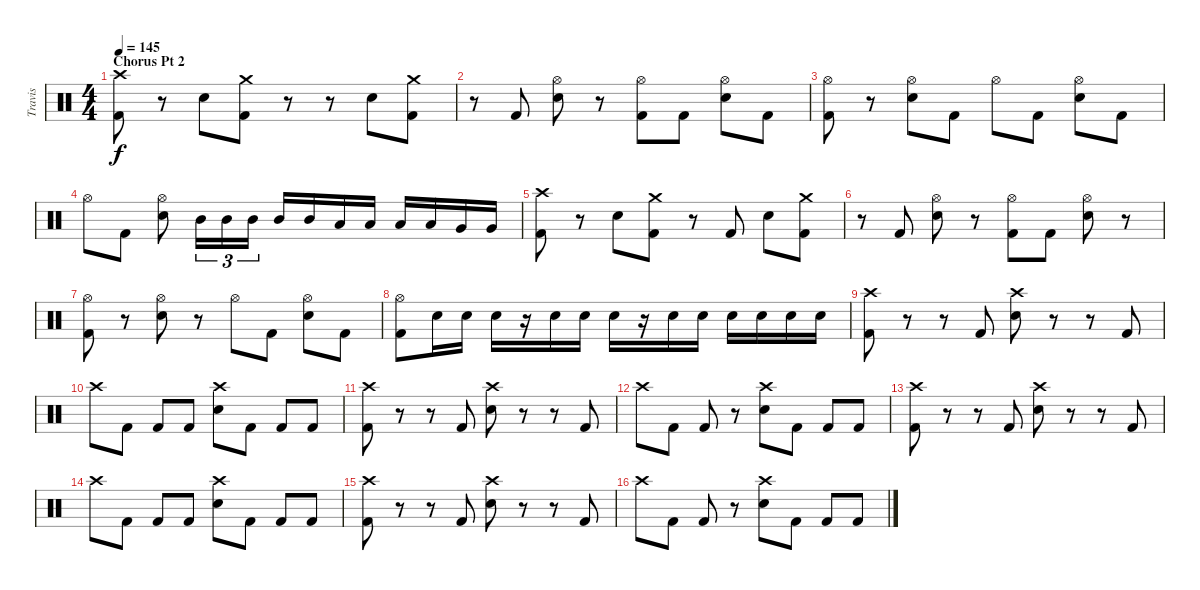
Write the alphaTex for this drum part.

\track ("Travis" "Travis") {instrument percussion}
\staff {score}
\articulation defaults
\ts (4 4)
\section ("" "Chorus Pt 2")
\tempo 145
\clef neutral
\ks c
("Crash high (hit)" "Kick (hit) 2").8{dy f} r.8 "Electric Snare (hit)".8 ("Crash medium (hit)" "Kick (hit) 2").8 r.8 r.8 "Electric Snare (hit)".8 ("Crash medium (hit)" "Kick (hit) 2").8 |
r.8 "Kick (hit) 2".8 ("Hi-Hat (open)" "Electric Snare (hit)").8 r.8 ("Hi-Hat (open)" "Kick (hit) 2").8 "Kick (hit) 2".8 ("Hi-Hat (open)" "Electric Snare (hit)").8 "Kick (hit) 2".8 |
("Hi-Hat (open)" "Kick (hit) 2").8 r.8 ("Hi-Hat (open)" "Electric Snare (hit)").8 "Kick (hit) 2".8 "Hi-Hat (open)".8 "Kick (hit) 2".8 ("Hi-Hat (open)" "Electric Snare (hit)").8 "Kick (hit) 2".8 |
"Hi-Hat (open)".8 "Kick (hit) 2".8 ("Hi-Hat (open)" "Electric Snare (hit)").8 "Mid Tom (hit)".16{tu (3 2)} "Mid Tom (hit)".16{tu (3 2)} "Mid Tom (hit)".16{tu (3 2)} "Mid Tom (hit)".16 "Mid Tom (hit)".16 "Low Tom (hit)".16 "Low Tom (hit)".16 "Low Tom (hit)".16 "Low Tom (hit)".16 "Very Low Tom (hit)".16 "Very Low Tom (hit)".16 |
("Crash high (hit)" "Kick (hit) 2").8 r.8 "Electric Snare (hit)".8 ("Crash medium (hit)" "Kick (hit) 2").8 r.8 "Kick (hit) 2".8 "Electric Snare (hit)".8 ("Crash medium (hit)" "Kick (hit) 2").8 |
r.8 "Kick (hit) 2".8 ("Hi-Hat (open)" "Electric Snare (hit)").8 r.8 ("Hi-Hat (open)" "Kick (hit) 2").8 "Kick (hit) 2".8 ("Hi-Hat (open)" "Electric Snare (hit)").8 r.8 |
("Hi-Hat (open)" "Kick (hit) 2").8 r.8 ("Hi-Hat (open)" "Electric Snare (hit)").8 r.8 "Hi-Hat (open)".8 "Kick (hit) 2".8 ("Hi-Hat (open)" "Electric Snare (hit)").8 "Kick (hit) 2".8 |
("Hi-Hat (open)" "Kick (hit) 2").8 "Electric Snare (hit)".16 "Electric Snare (hit)".16 "Electric Snare (hit)".16 r.16 "Electric Snare (hit)".16 "Electric Snare (hit)".16 "Electric Snare (hit)".16 r.16 "Electric Snare (hit)".16 "Electric Snare (hit)".16 "Electric Snare (hit)".16 "Electric Snare (hit)".16 "Electric Snare (hit)".16 "Electric Snare (hit)".16 |
("Crash high (hit)" "Kick (hit) 2").8 r.8 r.8 "Kick (hit) 2".8 ("Crash high (hit)" "Electric Snare (hit)").8 r.8 r.8 "Kick (hit) 2".8 |
"Crash high (hit)".8 "Kick (hit) 2".8 "Kick (hit) 2".8 "Kick (hit) 2".8 ("Crash high (hit)" "Electric Snare (hit)").8 "Kick (hit) 2".8 "Kick (hit) 2".8 "Kick (hit) 2".8 |
("Crash high (hit)" "Kick (hit) 2").8 r.8 r.8 "Kick (hit) 2".8 ("Crash high (hit)" "Electric Snare (hit)").8 r.8 r.8 "Kick (hit) 2".8 |
"Crash high (hit)".8 "Kick (hit) 2".8 "Kick (hit) 2".8 r.8 ("Crash high (hit)" "Electric Snare (hit)").8 "Kick (hit) 2".8 "Kick (hit) 2".8 "Kick (hit) 2".8 |
("Crash high (hit)" "Kick (hit) 2").8 r.8 r.8 "Kick (hit) 2".8 ("Crash high (hit)" "Electric Snare (hit)").8 r.8 r.8 "Kick (hit) 2".8 |
"Crash high (hit)".8 "Kick (hit) 2".8 "Kick (hit) 2".8 "Kick (hit) 2".8 ("Crash high (hit)" "Electric Snare (hit)").8 "Kick (hit) 2".8 "Kick (hit) 2".8 "Kick (hit) 2".8 |
("Crash high (hit)" "Kick (hit) 2").8 r.8 r.8 "Kick (hit) 2".8 ("Crash high (hit)" "Electric Snare (hit)").8 r.8 r.8 "Kick (hit) 2".8 |
"Crash high (hit)".8 "Kick (hit) 2".8 "Kick (hit) 2".8 r.8 ("Crash high (hit)" "Electric Snare (hit)").8 "Kick (hit) 2".8 "Kick (hit) 2".8 "Kick (hit) 2".8
